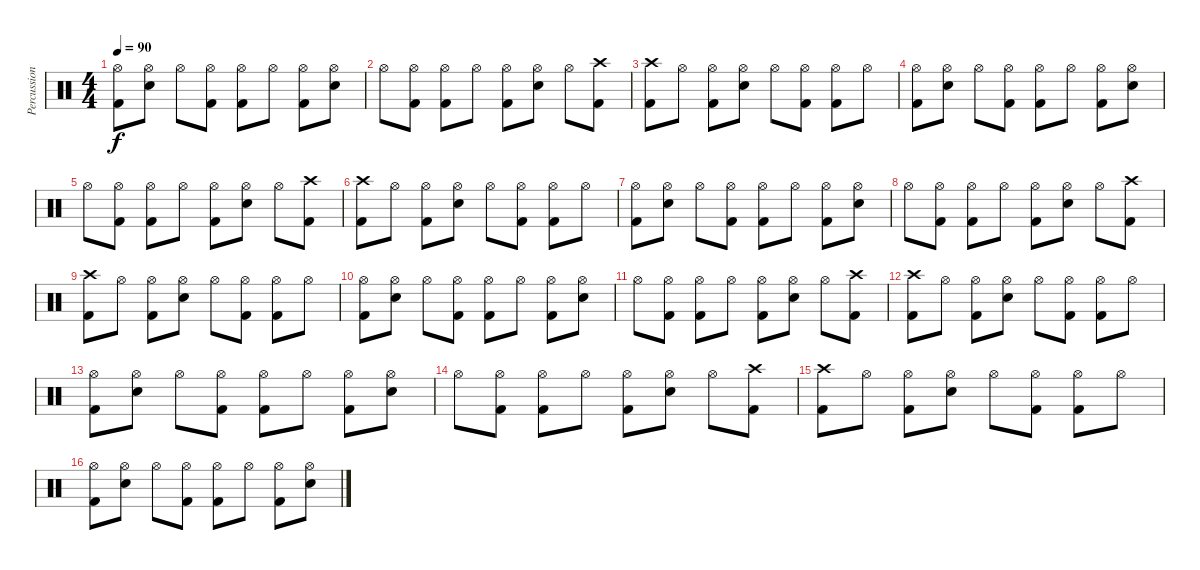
\track ("Percussion" "Percussion") {instrument percussion}
\staff {score}
\articulation defaults
\ts (4 4)
\tempo 90
\clef neutral
\ks c
("Hi-Hat (open)" "Kick (hit) 2").8{dy f} ("Hi-Hat (open)" "Snare (hit) 2").8 "Hi-Hat (open)".8 ("Hi-Hat (open)" "Kick (hit) 2").8 ("Hi-Hat (open)" "Kick (hit) 2").8 "Hi-Hat (open)".8 ("Hi-Hat (open)" "Kick (hit) 2").8 ("Hi-Hat (open)" "Snare (hit) 2").8 |
"Hi-Hat (open)".8 ("Hi-Hat (open)" "Kick (hit) 2").8 ("Hi-Hat (open)" "Kick (hit) 2").8 "Hi-Hat (open)".8 ("Hi-Hat (open)" "Kick (hit) 2").8 ("Hi-Hat (open)" "Snare (hit) 2").8 "Hi-Hat (open)".8 ("Crash high (hit)" "Kick (hit) 2").8 |
("Crash high (hit)" "Kick (hit) 2").8 "Hi-Hat (open)".8 ("Hi-Hat (open)" "Kick (hit) 2").8 ("Hi-Hat (open)" "Snare (hit) 2").8 "Hi-Hat (open)".8 ("Hi-Hat (open)" "Kick (hit) 2").8 ("Hi-Hat (open)" "Kick (hit) 2").8 "Hi-Hat (open)".8 |
("Hi-Hat (open)" "Kick (hit) 2").8 ("Hi-Hat (open)" "Snare (hit) 2").8 "Hi-Hat (open)".8 ("Hi-Hat (open)" "Kick (hit) 2").8 ("Hi-Hat (open)" "Kick (hit) 2").8 "Hi-Hat (open)".8 ("Hi-Hat (open)" "Kick (hit) 2").8 ("Hi-Hat (open)" "Snare (hit) 2").8 |
"Hi-Hat (open)".8 ("Hi-Hat (open)" "Kick (hit) 2").8 ("Hi-Hat (open)" "Kick (hit) 2").8 "Hi-Hat (open)".8 ("Hi-Hat (open)" "Kick (hit) 2").8 ("Hi-Hat (open)" "Snare (hit) 2").8 "Hi-Hat (open)".8 ("Crash high (hit)" "Kick (hit) 2").8 |
("Crash high (hit)" "Kick (hit) 2").8 "Hi-Hat (open)".8 ("Hi-Hat (open)" "Kick (hit) 2").8 ("Hi-Hat (open)" "Snare (hit) 2").8 "Hi-Hat (open)".8 ("Hi-Hat (open)" "Kick (hit) 2").8 ("Hi-Hat (open)" "Kick (hit) 2").8 "Hi-Hat (open)".8 |
("Hi-Hat (open)" "Kick (hit) 2").8 ("Hi-Hat (open)" "Snare (hit) 2").8 "Hi-Hat (open)".8 ("Hi-Hat (open)" "Kick (hit) 2").8 ("Hi-Hat (open)" "Kick (hit) 2").8 "Hi-Hat (open)".8 ("Hi-Hat (open)" "Kick (hit) 2").8 ("Hi-Hat (open)" "Snare (hit) 2").8 |
"Hi-Hat (open)".8 ("Hi-Hat (open)" "Kick (hit) 2").8 ("Hi-Hat (open)" "Kick (hit) 2").8 "Hi-Hat (open)".8 ("Hi-Hat (open)" "Kick (hit) 2").8 ("Hi-Hat (open)" "Snare (hit) 2").8 "Hi-Hat (open)".8 ("Crash high (hit)" "Kick (hit) 2").8 |
("Crash high (hit)" "Kick (hit) 2").8 "Hi-Hat (open)".8 ("Hi-Hat (open)" "Kick (hit) 2").8 ("Hi-Hat (open)" "Snare (hit) 2").8 "Hi-Hat (open)".8 ("Hi-Hat (open)" "Kick (hit) 2").8 ("Hi-Hat (open)" "Kick (hit) 2").8 "Hi-Hat (open)".8 |
("Hi-Hat (open)" "Kick (hit) 2").8 ("Hi-Hat (open)" "Snare (hit) 2").8 "Hi-Hat (open)".8 ("Hi-Hat (open)" "Kick (hit) 2").8 ("Hi-Hat (open)" "Kick (hit) 2").8 "Hi-Hat (open)".8 ("Hi-Hat (open)" "Kick (hit) 2").8 ("Hi-Hat (open)" "Snare (hit) 2").8 |
"Hi-Hat (open)".8 ("Hi-Hat (open)" "Kick (hit) 2").8 ("Hi-Hat (open)" "Kick (hit) 2").8 "Hi-Hat (open)".8 ("Hi-Hat (open)" "Kick (hit) 2").8 ("Hi-Hat (open)" "Snare (hit) 2").8 "Hi-Hat (open)".8 ("Crash high (hit)" "Kick (hit) 2").8 |
("Crash high (hit)" "Kick (hit) 2").8 "Hi-Hat (open)".8 ("Hi-Hat (open)" "Kick (hit) 2").8 ("Hi-Hat (open)" "Snare (hit) 2").8 "Hi-Hat (open)".8 ("Hi-Hat (open)" "Kick (hit) 2").8 ("Hi-Hat (open)" "Kick (hit) 2").8 "Hi-Hat (open)".8 |
("Hi-Hat (open)" "Kick (hit) 2").8 ("Hi-Hat (open)" "Snare (hit) 2").8 "Hi-Hat (open)".8 ("Hi-Hat (open)" "Kick (hit) 2").8 ("Hi-Hat (open)" "Kick (hit) 2").8 "Hi-Hat (open)".8 ("Hi-Hat (open)" "Kick (hit) 2").8 ("Hi-Hat (open)" "Snare (hit) 2").8 |
"Hi-Hat (open)".8 ("Hi-Hat (open)" "Kick (hit) 2").8 ("Hi-Hat (open)" "Kick (hit) 2").8 "Hi-Hat (open)".8 ("Hi-Hat (open)" "Kick (hit) 2").8 ("Hi-Hat (open)" "Snare (hit) 2").8 "Hi-Hat (open)".8 ("Crash high (hit)" "Kick (hit) 2").8 |
("Crash high (hit)" "Kick (hit) 2").8 "Hi-Hat (open)".8 ("Hi-Hat (open)" "Kick (hit) 2").8 ("Hi-Hat (open)" "Snare (hit) 2").8 "Hi-Hat (open)".8 ("Hi-Hat (open)" "Kick (hit) 2").8 ("Hi-Hat (open)" "Kick (hit) 2").8 "Hi-Hat (open)".8 |
("Hi-Hat (open)" "Kick (hit) 2").8 ("Hi-Hat (open)" "Snare (hit) 2").8 "Hi-Hat (open)".8 ("Hi-Hat (open)" "Kick (hit) 2").8 ("Hi-Hat (open)" "Kick (hit) 2").8 "Hi-Hat (open)".8 ("Hi-Hat (open)" "Kick (hit) 2").8 ("Hi-Hat (open)" "Snare (hit) 2").8
